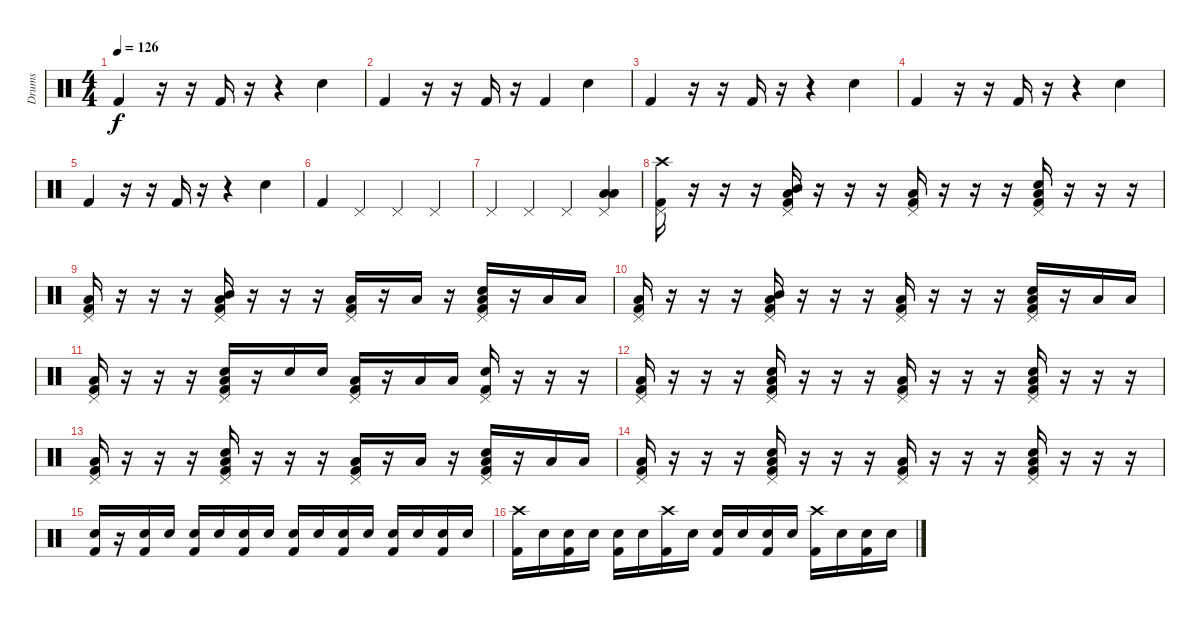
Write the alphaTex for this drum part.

\track ("Drums" "Drums") {instrument percussion}
\staff {score}
\articulation defaults
\ts (4 4)
\tempo 126
\clef neutral
\ks c "Kick (hit) 2".4{dy f}
r.16 r.16 "Kick (hit) 2".16 r.16 r.4 "Hand Clap (hit)".4 |
"Kick (hit) 2".4 r.16 r.16 "Kick (hit) 2".16 r.16 "Kick (hit) 2".4 "Hand Clap (hit)".4 |
"Kick (hit) 2".4 r.16 r.16 "Kick (hit) 2".16 r.16 r.4 "Hand Clap (hit)".4 |
"Kick (hit) 2".4 r.16 r.16 "Kick (hit) 2".16 r.16 r.4 "Hand Clap (hit)".4 |
"Kick (hit) 2".4 r.16 r.16 "Kick (hit) 2".16 r.16 r.4 "Hand Clap (hit)".4 |
"Kick (hit) 2".4 "Pedal Hi-Hat (hit)".4 "Pedal Hi-Hat (hit)".4 "Pedal Hi-Hat (hit)".4 |
"Pedal Hi-Hat (hit)".4 "Pedal Hi-Hat (hit)".4 "Pedal Hi-Hat (hit)".4 ("Low Tom (hit)" "Low Floor Tom (hit)" "Pedal Hi-Hat (hit)").4 |
("Crash high (hit)" "Kick (hit) 2" "Pedal Hi-Hat (hit)").16 r.16 r.16 r.16 ("Mid Tom (hit)" "Low Floor Tom (hit)" "Kick (hit) 2" "Pedal Hi-Hat (hit)").16 r.16 r.16 r.16 ("Low Floor Tom (hit)" "Kick (hit) 2" "Pedal Hi-Hat (hit)").16 r.16 r.16 r.16 ("Snare (hit) 2" "Low Floor Tom (hit)" "Kick (hit) 2" "Pedal Hi-Hat (hit)").16 r.16 r.16 r.16 |
("Low Floor Tom (hit)" "Kick (hit) 2" "Pedal Hi-Hat (hit)").16 r.16 r.16 r.16 ("Mid Tom (hit)" "Low Floor Tom (hit)" "Kick (hit) 2" "Pedal Hi-Hat (hit)").16 r.16 r.16 r.16 ("Low Floor Tom (hit)" "Kick (hit) 2" "Pedal Hi-Hat (hit)").16 r.16 "Low Floor Tom (hit)".16 r.16 ("Snare (hit) 2" "Low Floor Tom (hit)" "Kick (hit) 2" "Pedal Hi-Hat (hit)").16 r.16 "Low Tom (hit)".16 "Low Tom (hit)".16 |
("Low Floor Tom (hit)" "Kick (hit) 2" "Pedal Hi-Hat (hit)").16 r.16 r.16 r.16 ("Mid Tom (hit)" "Low Floor Tom (hit)" "Kick (hit) 2" "Pedal Hi-Hat (hit)").16 r.16 r.16 r.16 ("Low Floor Tom (hit)" "Kick (hit) 2" "Pedal Hi-Hat (hit)").16 r.16 r.16 r.16 ("Snare (hit) 2" "Low Floor Tom (hit)" "Kick (hit) 2" "Pedal Hi-Hat (hit)").16 r.16 "Low Tom (hit)".16 "Low Tom (hit)".16 |
("Low Floor Tom (hit)" "Kick (hit) 2" "Pedal Hi-Hat (hit)").16 r.16 r.16 r.16 ("Snare (hit) 2" "Low Floor Tom (hit)" "Kick (hit) 2" "Pedal Hi-Hat (hit)").16 r.16 "Snare (hit) 2".16 "Snare (hit) 2".16 ("Low Floor Tom (hit)" "Kick (hit) 2" "Pedal Hi-Hat (hit)").16 r.16 "Low Floor Tom (hit)".16 "Low Floor Tom (hit)".16 ("Snare (hit) 2" "Kick (hit) 2" "Pedal Hi-Hat (hit)").16 r.16 r.16 r.16 |
("Low Floor Tom (hit)" "Kick (hit) 2" "Pedal Hi-Hat (hit)").16 r.16 r.16 r.16 ("Snare (hit) 2" "Low Floor Tom (hit)" "Kick (hit) 2" "Pedal Hi-Hat (hit)").16 r.16 r.16 r.16 ("Low Floor Tom (hit)" "Kick (hit) 2" "Pedal Hi-Hat (hit)").16 r.16 r.16 r.16 ("Snare (hit) 2" "Low Floor Tom (hit)" "Kick (hit) 2" "Pedal Hi-Hat (hit)").16 r.16 r.16 r.16 |
("Low Floor Tom (hit)" "Kick (hit) 2" "Pedal Hi-Hat (hit)").16 r.16 r.16 r.16 ("Snare (hit) 2" "Low Floor Tom (hit)" "Kick (hit) 2" "Pedal Hi-Hat (hit)").16 r.16 r.16 r.16 ("Low Floor Tom (hit)" "Kick (hit) 2" "Pedal Hi-Hat (hit)").16 r.16 "Low Floor Tom (hit)".16 r.16 ("Snare (hit) 2" "Low Floor Tom (hit)" "Kick (hit) 2" "Pedal Hi-Hat (hit)").16 r.16 "Low Tom (hit)".16 "Low Tom (hit)".16 |
("Low Floor Tom (hit)" "Kick (hit) 2" "Pedal Hi-Hat (hit)").16 r.16 r.16 r.16 ("Snare (hit) 2" "Low Floor Tom (hit)" "Kick (hit) 2" "Pedal Hi-Hat (hit)").16 r.16 r.16 r.16 ("Low Floor Tom (hit)" "Kick (hit) 2" "Pedal Hi-Hat (hit)").16 r.16 r.16 r.16 ("Snare (hit) 2" "Low Floor Tom (hit)" "Kick (hit) 2" "Pedal Hi-Hat (hit)").16 r.16 r.16 r.16 |
("Snare (hit) 2" "Kick (hit) 2").16 r.16 ("Snare (hit) 2" "Kick (hit) 2").16 "Snare (hit) 2".16 ("Snare (hit) 2" "Kick (hit) 2").16 "Snare (hit) 2".16 ("Snare (hit) 2" "Kick (hit) 2").16 "Snare (hit) 2".16 ("Snare (hit) 2" "Kick (hit) 2").16 "Snare (hit) 2".16 ("Snare (hit) 2" "Kick (hit) 2").16 "Snare (hit) 2".16 ("Snare (hit) 2" "Kick (hit) 2").16 "Snare (hit) 2".16 ("Snare (hit) 2" "Kick (hit) 2").16 "Snare (hit) 2".16 |
("Crash high (hit)" "Kick (hit) 2").16 "Snare (hit) 2".16 ("Snare (hit) 2" "Kick (hit) 2").16 "Snare (hit) 2".16 ("Snare (hit) 2" "Kick (hit) 2").16 "Snare (hit) 2".16 ("Crash high (hit)" "Kick (hit) 2").16 "Snare (hit) 2".16 ("Snare (hit) 2" "Kick (hit) 2").16 "Snare (hit) 2".16 ("Snare (hit) 2" "Kick (hit) 2").16 "Snare (hit) 2".16 ("Crash high (hit)" "Kick (hit) 2").16 "Snare (hit) 2".16 ("Snare (hit) 2" "Kick (hit) 2").16 "Snare (hit) 2".16
